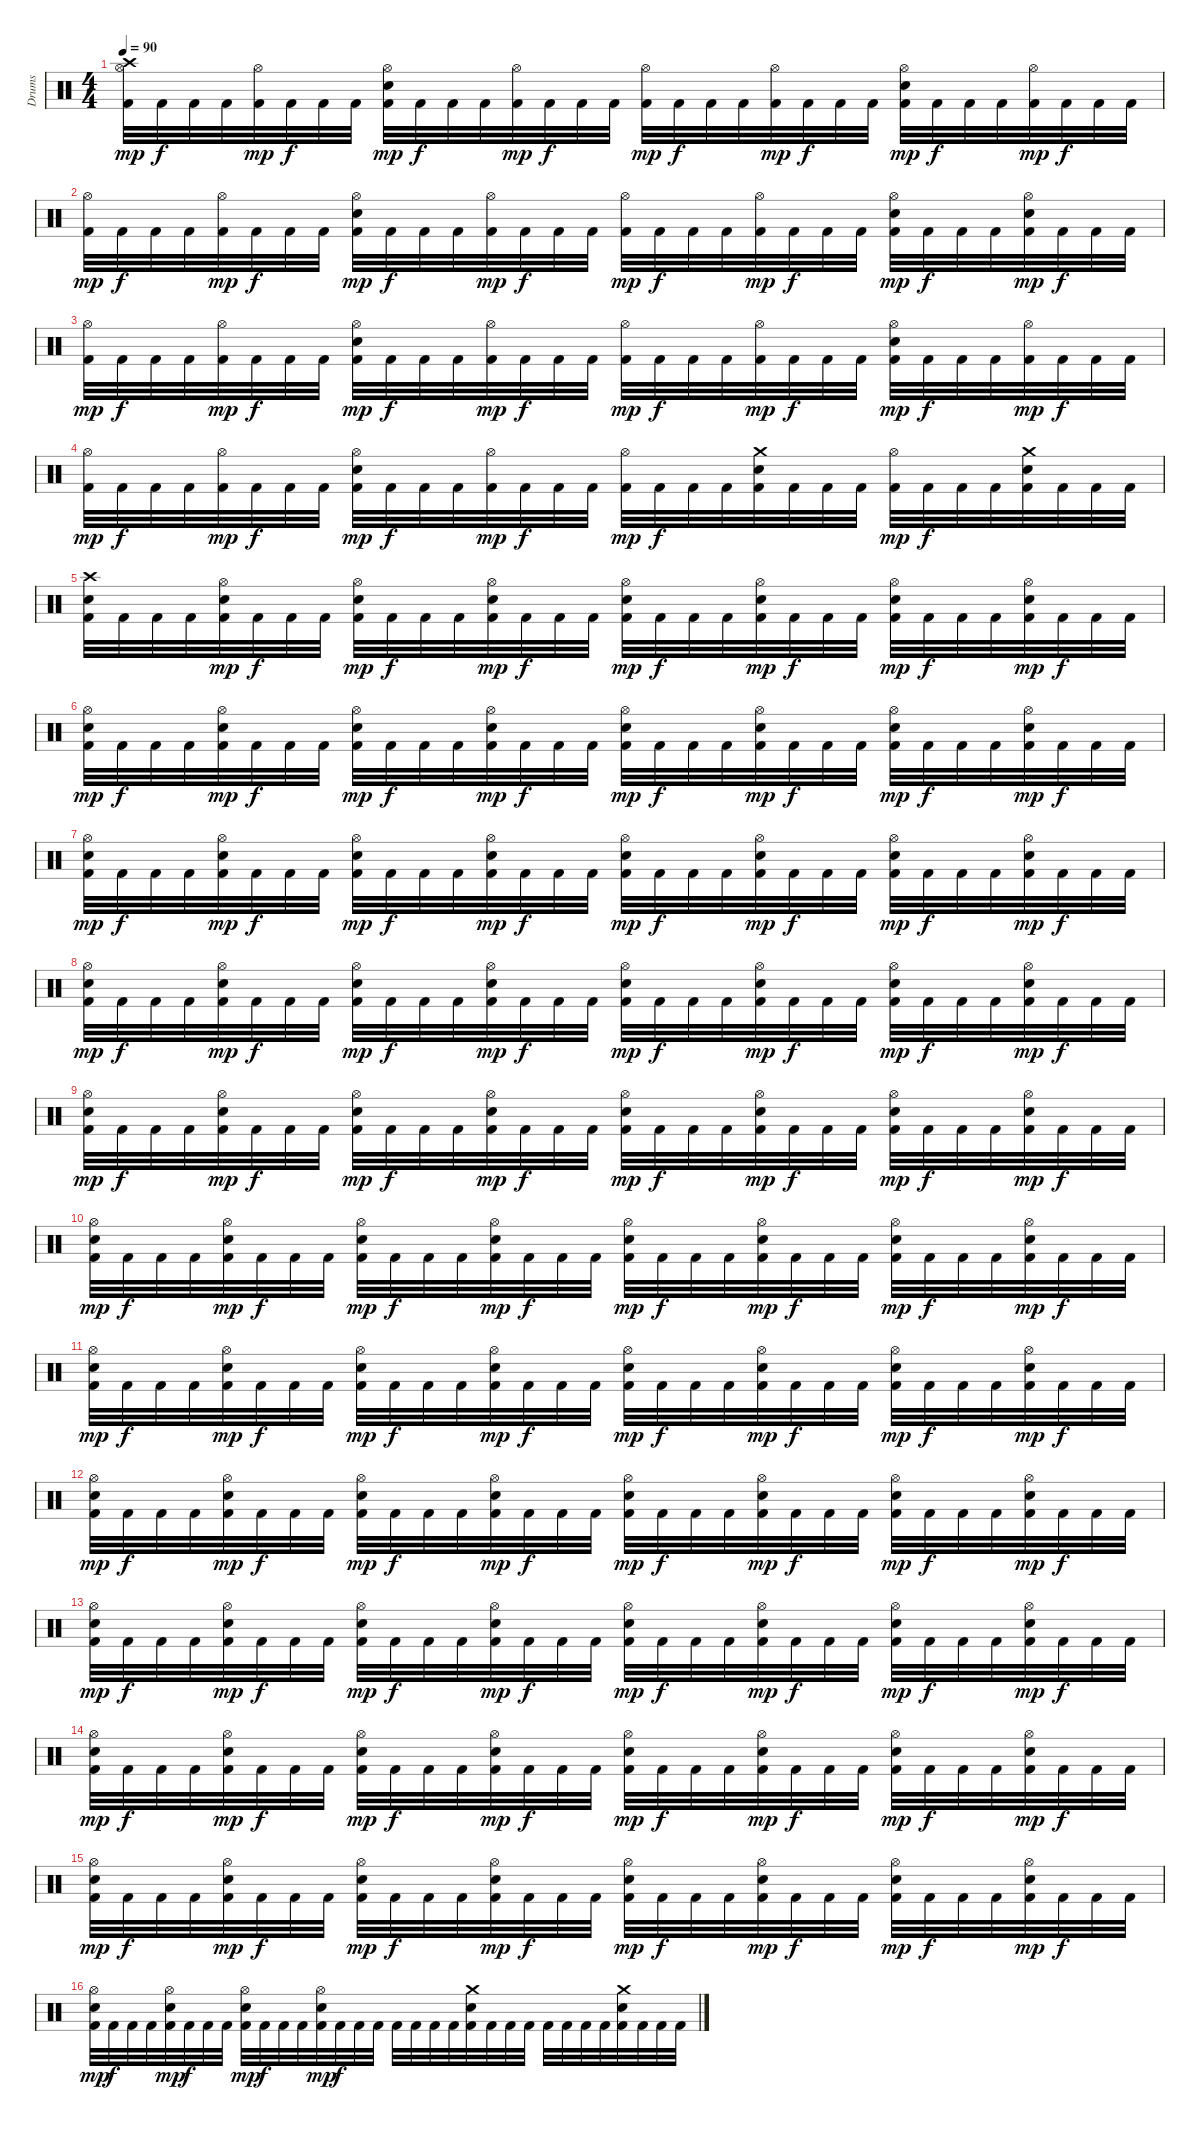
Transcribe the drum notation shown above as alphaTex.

\track ("Drums" "Drums") {instrument percussion}
\staff {score}
\articulation defaults
\ts (4 4)
\tempo 90
\clef neutral
\ks c
("Crash high (hit)" "Hi-Hat (open)" "Kick (hit) 2").32{dy mp} "Kick (hit) 2".32{dy f} "Kick (hit) 2".32 "Kick (hit) 2".32 ("Hi-Hat (open)" "Kick (hit) 2").32{dy mp} "Kick (hit) 2".32{dy f} "Kick (hit) 2".32 "Kick (hit) 2".32 ("Hi-Hat (open)" "Snare (hit) 2" "Kick (hit) 2").32{dy mp} "Kick (hit) 2".32{dy f} "Kick (hit) 2".32 "Kick (hit) 2".32 ("Hi-Hat (open)" "Kick (hit) 2").32{dy mp} "Kick (hit) 2".32{dy f} "Kick (hit) 2".32 "Kick (hit) 2".32 ("Hi-Hat (open)" "Kick (hit) 2").32{dy mp} "Kick (hit) 2".32{dy f} "Kick (hit) 2".32 "Kick (hit) 2".32 ("Hi-Hat (open)" "Kick (hit) 2").32{dy mp} "Kick (hit) 2".32{dy f} "Kick (hit) 2".32 "Kick (hit) 2".32 ("Hi-Hat (open)" "Snare (hit) 2" "Kick (hit) 2").32{dy mp} "Kick (hit) 2".32{dy f} "Kick (hit) 2".32 "Kick (hit) 2".32 ("Hi-Hat (open)" "Kick (hit) 2").32{dy mp} "Kick (hit) 2".32{dy f} "Kick (hit) 2".32 "Kick (hit) 2".32 |
("Hi-Hat (open)" "Kick (hit) 2").32{dy mp} "Kick (hit) 2".32{dy f} "Kick (hit) 2".32 "Kick (hit) 2".32 ("Hi-Hat (open)" "Kick (hit) 2").32{dy mp} "Kick (hit) 2".32{dy f} "Kick (hit) 2".32 "Kick (hit) 2".32 ("Hi-Hat (open)" "Snare (hit) 2" "Kick (hit) 2").32{dy mp} "Kick (hit) 2".32{dy f} "Kick (hit) 2".32 "Kick (hit) 2".32 ("Hi-Hat (open)" "Kick (hit) 2").32{dy mp} "Kick (hit) 2".32{dy f} "Kick (hit) 2".32 "Kick (hit) 2".32 ("Hi-Hat (open)" "Kick (hit) 2").32{dy mp} "Kick (hit) 2".32{dy f} "Kick (hit) 2".32 "Kick (hit) 2".32 ("Hi-Hat (open)" "Kick (hit) 2").32{dy mp} "Kick (hit) 2".32{dy f} "Kick (hit) 2".32 "Kick (hit) 2".32 ("Hi-Hat (open)" "Snare (hit) 2" "Kick (hit) 2").32{dy mp} "Kick (hit) 2".32{dy f} "Kick (hit) 2".32 "Kick (hit) 2".32 ("Hi-Hat (open)" "Snare (hit) 2" "Kick (hit) 2").32{dy mp} "Kick (hit) 2".32{dy f} "Kick (hit) 2".32 "Kick (hit) 2".32 |
("Hi-Hat (open)" "Kick (hit) 2").32{dy mp} "Kick (hit) 2".32{dy f} "Kick (hit) 2".32 "Kick (hit) 2".32 ("Hi-Hat (open)" "Kick (hit) 2").32{dy mp} "Kick (hit) 2".32{dy f} "Kick (hit) 2".32 "Kick (hit) 2".32 ("Hi-Hat (open)" "Snare (hit) 2" "Kick (hit) 2").32{dy mp} "Kick (hit) 2".32{dy f} "Kick (hit) 2".32 "Kick (hit) 2".32 ("Hi-Hat (open)" "Kick (hit) 2").32{dy mp} "Kick (hit) 2".32{dy f} "Kick (hit) 2".32 "Kick (hit) 2".32 ("Hi-Hat (open)" "Kick (hit) 2").32{dy mp} "Kick (hit) 2".32{dy f} "Kick (hit) 2".32 "Kick (hit) 2".32 ("Hi-Hat (open)" "Kick (hit) 2").32{dy mp} "Kick (hit) 2".32{dy f} "Kick (hit) 2".32 "Kick (hit) 2".32 ("Hi-Hat (open)" "Snare (hit) 2" "Kick (hit) 2").32{dy mp} "Kick (hit) 2".32{dy f} "Kick (hit) 2".32 "Kick (hit) 2".32 ("Hi-Hat (open)" "Kick (hit) 2").32{dy mp} "Kick (hit) 2".32{dy f} "Kick (hit) 2".32 "Kick (hit) 2".32 |
("Hi-Hat (open)" "Kick (hit) 2").32{dy mp} "Kick (hit) 2".32{dy f} "Kick (hit) 2".32 "Kick (hit) 2".32 ("Hi-Hat (open)" "Kick (hit) 2").32{dy mp} "Kick (hit) 2".32{dy f} "Kick (hit) 2".32 "Kick (hit) 2".32 ("Hi-Hat (open)" "Snare (hit) 2" "Kick (hit) 2").32{dy mp} "Kick (hit) 2".32{dy f} "Kick (hit) 2".32 "Kick (hit) 2".32 ("Hi-Hat (open)" "Kick (hit) 2").32{dy mp} "Kick (hit) 2".32{dy f} "Kick (hit) 2".32 "Kick (hit) 2".32 ("Hi-Hat (open)" "Kick (hit) 2").32{dy mp} "Kick (hit) 2".32{dy f} "Kick (hit) 2".32 "Kick (hit) 2".32 ("Crash medium (hit)" "Snare (hit) 2" "Kick (hit) 2").32 "Kick (hit) 2".32 "Kick (hit) 2".32 "Kick (hit) 2".32 ("Hi-Hat (open)" "Kick (hit) 2").32{dy mp} "Kick (hit) 2".32{dy f} "Kick (hit) 2".32 "Kick (hit) 2".32 ("Crash medium (hit)" "Snare (hit) 2" "Kick (hit) 2").32 "Kick (hit) 2".32 "Kick (hit) 2".32 "Kick (hit) 2".32 |
("Crash high (hit)" "Snare (hit) 2" "Kick (hit) 2").32 "Kick (hit) 2".32 "Kick (hit) 2".32 "Kick (hit) 2".32 ("Hi-Hat (open)" "Snare (hit) 2" "Kick (hit) 2").32{dy mp} "Kick (hit) 2".32{dy f} "Kick (hit) 2".32 "Kick (hit) 2".32 ("Hi-Hat (open)" "Snare (hit) 2" "Kick (hit) 2").32{dy mp} "Kick (hit) 2".32{dy f} "Kick (hit) 2".32 "Kick (hit) 2".32 ("Hi-Hat (open)" "Snare (hit) 2" "Kick (hit) 2").32{dy mp} "Kick (hit) 2".32{dy f} "Kick (hit) 2".32 "Kick (hit) 2".32 ("Hi-Hat (open)" "Snare (hit) 2" "Kick (hit) 2").32{dy mp} "Kick (hit) 2".32{dy f} "Kick (hit) 2".32 "Kick (hit) 2".32 ("Hi-Hat (open)" "Snare (hit) 2" "Kick (hit) 2").32{dy mp} "Kick (hit) 2".32{dy f} "Kick (hit) 2".32 "Kick (hit) 2".32 ("Hi-Hat (open)" "Snare (hit) 2" "Kick (hit) 2").32{dy mp} "Kick (hit) 2".32{dy f} "Kick (hit) 2".32 "Kick (hit) 2".32 ("Hi-Hat (open)" "Snare (hit) 2" "Kick (hit) 2").32{dy mp} "Kick (hit) 2".32{dy f} "Kick (hit) 2".32 "Kick (hit) 2".32 |
("Hi-Hat (open)" "Snare (hit) 2" "Kick (hit) 2").32{dy mp} "Kick (hit) 2".32{dy f} "Kick (hit) 2".32 "Kick (hit) 2".32 ("Hi-Hat (open)" "Snare (hit) 2" "Kick (hit) 2").32{dy mp} "Kick (hit) 2".32{dy f} "Kick (hit) 2".32 "Kick (hit) 2".32 ("Hi-Hat (open)" "Snare (hit) 2" "Kick (hit) 2").32{dy mp} "Kick (hit) 2".32{dy f} "Kick (hit) 2".32 "Kick (hit) 2".32 ("Hi-Hat (open)" "Snare (hit) 2" "Kick (hit) 2").32{dy mp} "Kick (hit) 2".32{dy f} "Kick (hit) 2".32 "Kick (hit) 2".32 ("Hi-Hat (open)" "Snare (hit) 2" "Kick (hit) 2").32{dy mp} "Kick (hit) 2".32{dy f} "Kick (hit) 2".32 "Kick (hit) 2".32 ("Hi-Hat (open)" "Snare (hit) 2" "Kick (hit) 2").32{dy mp} "Kick (hit) 2".32{dy f} "Kick (hit) 2".32 "Kick (hit) 2".32 ("Hi-Hat (open)" "Snare (hit) 2" "Kick (hit) 2").32{dy mp} "Kick (hit) 2".32{dy f} "Kick (hit) 2".32 "Kick (hit) 2".32 ("Hi-Hat (open)" "Snare (hit) 2" "Kick (hit) 2").32{dy mp} "Kick (hit) 2".32{dy f} "Kick (hit) 2".32 "Kick (hit) 2".32 |
("Hi-Hat (open)" "Snare (hit) 2" "Kick (hit) 2").32{dy mp} "Kick (hit) 2".32{dy f} "Kick (hit) 2".32 "Kick (hit) 2".32 ("Hi-Hat (open)" "Snare (hit) 2" "Kick (hit) 2").32{dy mp} "Kick (hit) 2".32{dy f} "Kick (hit) 2".32 "Kick (hit) 2".32 ("Hi-Hat (open)" "Snare (hit) 2" "Kick (hit) 2").32{dy mp} "Kick (hit) 2".32{dy f} "Kick (hit) 2".32 "Kick (hit) 2".32 ("Hi-Hat (open)" "Snare (hit) 2" "Kick (hit) 2").32{dy mp} "Kick (hit) 2".32{dy f} "Kick (hit) 2".32 "Kick (hit) 2".32 ("Hi-Hat (open)" "Snare (hit) 2" "Kick (hit) 2").32{dy mp} "Kick (hit) 2".32{dy f} "Kick (hit) 2".32 "Kick (hit) 2".32 ("Hi-Hat (open)" "Snare (hit) 2" "Kick (hit) 2").32{dy mp} "Kick (hit) 2".32{dy f} "Kick (hit) 2".32 "Kick (hit) 2".32 ("Hi-Hat (open)" "Snare (hit) 2" "Kick (hit) 2").32{dy mp} "Kick (hit) 2".32{dy f} "Kick (hit) 2".32 "Kick (hit) 2".32 ("Hi-Hat (open)" "Snare (hit) 2" "Kick (hit) 2").32{dy mp} "Kick (hit) 2".32{dy f} "Kick (hit) 2".32 "Kick (hit) 2".32 |
("Hi-Hat (open)" "Snare (hit) 2" "Kick (hit) 2").32{dy mp} "Kick (hit) 2".32{dy f} "Kick (hit) 2".32 "Kick (hit) 2".32 ("Hi-Hat (open)" "Snare (hit) 2" "Kick (hit) 2").32{dy mp} "Kick (hit) 2".32{dy f} "Kick (hit) 2".32 "Kick (hit) 2".32 ("Hi-Hat (open)" "Snare (hit) 2" "Kick (hit) 2").32{dy mp} "Kick (hit) 2".32{dy f} "Kick (hit) 2".32 "Kick (hit) 2".32 ("Hi-Hat (open)" "Snare (hit) 2" "Kick (hit) 2").32{dy mp} "Kick (hit) 2".32{dy f} "Kick (hit) 2".32 "Kick (hit) 2".32 ("Hi-Hat (open)" "Snare (hit) 2" "Kick (hit) 2").32{dy mp} "Kick (hit) 2".32{dy f} "Kick (hit) 2".32 "Kick (hit) 2".32 ("Hi-Hat (open)" "Snare (hit) 2" "Kick (hit) 2").32{dy mp} "Kick (hit) 2".32{dy f} "Kick (hit) 2".32 "Kick (hit) 2".32 ("Hi-Hat (open)" "Snare (hit) 2" "Kick (hit) 2").32{dy mp} "Kick (hit) 2".32{dy f} "Kick (hit) 2".32 "Kick (hit) 2".32 ("Hi-Hat (open)" "Snare (hit) 2" "Kick (hit) 2").32{dy mp} "Kick (hit) 2".32{dy f} "Kick (hit) 2".32 "Kick (hit) 2".32 |
("Hi-Hat (open)" "Snare (hit) 2" "Kick (hit) 2").32{dy mp} "Kick (hit) 2".32{dy f} "Kick (hit) 2".32 "Kick (hit) 2".32 ("Hi-Hat (open)" "Snare (hit) 2" "Kick (hit) 2").32{dy mp} "Kick (hit) 2".32{dy f} "Kick (hit) 2".32 "Kick (hit) 2".32 ("Hi-Hat (open)" "Snare (hit) 2" "Kick (hit) 2").32{dy mp} "Kick (hit) 2".32{dy f} "Kick (hit) 2".32 "Kick (hit) 2".32 ("Hi-Hat (open)" "Snare (hit) 2" "Kick (hit) 2").32{dy mp} "Kick (hit) 2".32{dy f} "Kick (hit) 2".32 "Kick (hit) 2".32 ("Hi-Hat (open)" "Snare (hit) 2" "Kick (hit) 2").32{dy mp} "Kick (hit) 2".32{dy f} "Kick (hit) 2".32 "Kick (hit) 2".32 ("Hi-Hat (open)" "Snare (hit) 2" "Kick (hit) 2").32{dy mp} "Kick (hit) 2".32{dy f} "Kick (hit) 2".32 "Kick (hit) 2".32 ("Hi-Hat (open)" "Snare (hit) 2" "Kick (hit) 2").32{dy mp} "Kick (hit) 2".32{dy f} "Kick (hit) 2".32 "Kick (hit) 2".32 ("Hi-Hat (open)" "Snare (hit) 2" "Kick (hit) 2").32{dy mp} "Kick (hit) 2".32{dy f} "Kick (hit) 2".32 "Kick (hit) 2".32 |
("Hi-Hat (open)" "Snare (hit) 2" "Kick (hit) 2").32{dy mp} "Kick (hit) 2".32{dy f} "Kick (hit) 2".32 "Kick (hit) 2".32 ("Hi-Hat (open)" "Snare (hit) 2" "Kick (hit) 2").32{dy mp} "Kick (hit) 2".32{dy f} "Kick (hit) 2".32 "Kick (hit) 2".32 ("Hi-Hat (open)" "Snare (hit) 2" "Kick (hit) 2").32{dy mp} "Kick (hit) 2".32{dy f} "Kick (hit) 2".32 "Kick (hit) 2".32 ("Hi-Hat (open)" "Snare (hit) 2" "Kick (hit) 2").32{dy mp} "Kick (hit) 2".32{dy f} "Kick (hit) 2".32 "Kick (hit) 2".32 ("Hi-Hat (open)" "Snare (hit) 2" "Kick (hit) 2").32{dy mp} "Kick (hit) 2".32{dy f} "Kick (hit) 2".32 "Kick (hit) 2".32 ("Hi-Hat (open)" "Snare (hit) 2" "Kick (hit) 2").32{dy mp} "Kick (hit) 2".32{dy f} "Kick (hit) 2".32 "Kick (hit) 2".32 ("Hi-Hat (open)" "Snare (hit) 2" "Kick (hit) 2").32{dy mp} "Kick (hit) 2".32{dy f} "Kick (hit) 2".32 "Kick (hit) 2".32 ("Hi-Hat (open)" "Snare (hit) 2" "Kick (hit) 2").32{dy mp} "Kick (hit) 2".32{dy f} "Kick (hit) 2".32 "Kick (hit) 2".32 |
("Hi-Hat (open)" "Snare (hit) 2" "Kick (hit) 2").32{dy mp} "Kick (hit) 2".32{dy f} "Kick (hit) 2".32 "Kick (hit) 2".32 ("Hi-Hat (open)" "Snare (hit) 2" "Kick (hit) 2").32{dy mp} "Kick (hit) 2".32{dy f} "Kick (hit) 2".32 "Kick (hit) 2".32 ("Hi-Hat (open)" "Snare (hit) 2" "Kick (hit) 2").32{dy mp} "Kick (hit) 2".32{dy f} "Kick (hit) 2".32 "Kick (hit) 2".32 ("Hi-Hat (open)" "Snare (hit) 2" "Kick (hit) 2").32{dy mp} "Kick (hit) 2".32{dy f} "Kick (hit) 2".32 "Kick (hit) 2".32 ("Hi-Hat (open)" "Snare (hit) 2" "Kick (hit) 2").32{dy mp} "Kick (hit) 2".32{dy f} "Kick (hit) 2".32 "Kick (hit) 2".32 ("Hi-Hat (open)" "Snare (hit) 2" "Kick (hit) 2").32{dy mp} "Kick (hit) 2".32{dy f} "Kick (hit) 2".32 "Kick (hit) 2".32 ("Hi-Hat (open)" "Snare (hit) 2" "Kick (hit) 2").32{dy mp} "Kick (hit) 2".32{dy f} "Kick (hit) 2".32 "Kick (hit) 2".32 ("Hi-Hat (open)" "Snare (hit) 2" "Kick (hit) 2").32{dy mp} "Kick (hit) 2".32{dy f} "Kick (hit) 2".32 "Kick (hit) 2".32 |
("Hi-Hat (open)" "Snare (hit) 2" "Kick (hit) 2").32{dy mp} "Kick (hit) 2".32{dy f} "Kick (hit) 2".32 "Kick (hit) 2".32 ("Hi-Hat (open)" "Snare (hit) 2" "Kick (hit) 2").32{dy mp} "Kick (hit) 2".32{dy f} "Kick (hit) 2".32 "Kick (hit) 2".32 ("Hi-Hat (open)" "Snare (hit) 2" "Kick (hit) 2").32{dy mp} "Kick (hit) 2".32{dy f} "Kick (hit) 2".32 "Kick (hit) 2".32 ("Hi-Hat (open)" "Snare (hit) 2" "Kick (hit) 2").32{dy mp} "Kick (hit) 2".32{dy f} "Kick (hit) 2".32 "Kick (hit) 2".32 ("Hi-Hat (open)" "Snare (hit) 2" "Kick (hit) 2").32{dy mp} "Kick (hit) 2".32{dy f} "Kick (hit) 2".32 "Kick (hit) 2".32 ("Hi-Hat (open)" "Snare (hit) 2" "Kick (hit) 2").32{dy mp} "Kick (hit) 2".32{dy f} "Kick (hit) 2".32 "Kick (hit) 2".32 ("Hi-Hat (open)" "Snare (hit) 2" "Kick (hit) 2").32{dy mp} "Kick (hit) 2".32{dy f} "Kick (hit) 2".32 "Kick (hit) 2".32 ("Hi-Hat (open)" "Snare (hit) 2" "Kick (hit) 2").32{dy mp} "Kick (hit) 2".32{dy f} "Kick (hit) 2".32 "Kick (hit) 2".32 |
("Hi-Hat (open)" "Snare (hit) 2" "Kick (hit) 2").32{dy mp} "Kick (hit) 2".32{dy f} "Kick (hit) 2".32 "Kick (hit) 2".32 ("Hi-Hat (open)" "Snare (hit) 2" "Kick (hit) 2").32{dy mp} "Kick (hit) 2".32{dy f} "Kick (hit) 2".32 "Kick (hit) 2".32 ("Hi-Hat (open)" "Snare (hit) 2" "Kick (hit) 2").32{dy mp} "Kick (hit) 2".32{dy f} "Kick (hit) 2".32 "Kick (hit) 2".32 ("Hi-Hat (open)" "Snare (hit) 2" "Kick (hit) 2").32{dy mp} "Kick (hit) 2".32{dy f} "Kick (hit) 2".32 "Kick (hit) 2".32 ("Hi-Hat (open)" "Snare (hit) 2" "Kick (hit) 2").32{dy mp} "Kick (hit) 2".32{dy f} "Kick (hit) 2".32 "Kick (hit) 2".32 ("Hi-Hat (open)" "Snare (hit) 2" "Kick (hit) 2").32{dy mp} "Kick (hit) 2".32{dy f} "Kick (hit) 2".32 "Kick (hit) 2".32 ("Hi-Hat (open)" "Snare (hit) 2" "Kick (hit) 2").32{dy mp} "Kick (hit) 2".32{dy f} "Kick (hit) 2".32 "Kick (hit) 2".32 ("Hi-Hat (open)" "Snare (hit) 2" "Kick (hit) 2").32{dy mp} "Kick (hit) 2".32{dy f} "Kick (hit) 2".32 "Kick (hit) 2".32 |
("Hi-Hat (open)" "Snare (hit) 2" "Kick (hit) 2").32{dy mp} "Kick (hit) 2".32{dy f} "Kick (hit) 2".32 "Kick (hit) 2".32 ("Hi-Hat (open)" "Snare (hit) 2" "Kick (hit) 2").32{dy mp} "Kick (hit) 2".32{dy f} "Kick (hit) 2".32 "Kick (hit) 2".32 ("Hi-Hat (open)" "Snare (hit) 2" "Kick (hit) 2").32{dy mp} "Kick (hit) 2".32{dy f} "Kick (hit) 2".32 "Kick (hit) 2".32 ("Hi-Hat (open)" "Snare (hit) 2" "Kick (hit) 2").32{dy mp} "Kick (hit) 2".32{dy f} "Kick (hit) 2".32 "Kick (hit) 2".32 ("Hi-Hat (open)" "Snare (hit) 2" "Kick (hit) 2").32{dy mp} "Kick (hit) 2".32{dy f} "Kick (hit) 2".32 "Kick (hit) 2".32 ("Hi-Hat (open)" "Snare (hit) 2" "Kick (hit) 2").32{dy mp} "Kick (hit) 2".32{dy f} "Kick (hit) 2".32 "Kick (hit) 2".32 ("Hi-Hat (open)" "Snare (hit) 2" "Kick (hit) 2").32{dy mp} "Kick (hit) 2".32{dy f} "Kick (hit) 2".32 "Kick (hit) 2".32 ("Hi-Hat (open)" "Snare (hit) 2" "Kick (hit) 2").32{dy mp} "Kick (hit) 2".32{dy f} "Kick (hit) 2".32 "Kick (hit) 2".32 |
("Hi-Hat (open)" "Snare (hit) 2" "Kick (hit) 2").32{dy mp} "Kick (hit) 2".32{dy f} "Kick (hit) 2".32 "Kick (hit) 2".32 ("Hi-Hat (open)" "Snare (hit) 2" "Kick (hit) 2").32{dy mp} "Kick (hit) 2".32{dy f} "Kick (hit) 2".32 "Kick (hit) 2".32 ("Hi-Hat (open)" "Snare (hit) 2" "Kick (hit) 2").32{dy mp} "Kick (hit) 2".32{dy f} "Kick (hit) 2".32 "Kick (hit) 2".32 ("Hi-Hat (open)" "Snare (hit) 2" "Kick (hit) 2").32{dy mp} "Kick (hit) 2".32{dy f} "Kick (hit) 2".32 "Kick (hit) 2".32 ("Hi-Hat (open)" "Snare (hit) 2" "Kick (hit) 2").32{dy mp} "Kick (hit) 2".32{dy f} "Kick (hit) 2".32 "Kick (hit) 2".32 ("Hi-Hat (open)" "Snare (hit) 2" "Kick (hit) 2").32{dy mp} "Kick (hit) 2".32{dy f} "Kick (hit) 2".32 "Kick (hit) 2".32 ("Hi-Hat (open)" "Snare (hit) 2" "Kick (hit) 2").32{dy mp} "Kick (hit) 2".32{dy f} "Kick (hit) 2".32 "Kick (hit) 2".32 ("Hi-Hat (open)" "Snare (hit) 2" "Kick (hit) 2").32{dy mp} "Kick (hit) 2".32{dy f} "Kick (hit) 2".32 "Kick (hit) 2".32 |
("Hi-Hat (open)" "Snare (hit) 2" "Kick (hit) 2").32{dy mp} "Kick (hit) 2".32{dy f} "Kick (hit) 2".32 "Kick (hit) 2".32 ("Hi-Hat (open)" "Snare (hit) 2" "Kick (hit) 2").32{dy mp} "Kick (hit) 2".32{dy f} "Kick (hit) 2".32 "Kick (hit) 2".32 ("Hi-Hat (open)" "Snare (hit) 2" "Kick (hit) 2").32{dy mp} "Kick (hit) 2".32{dy f} "Kick (hit) 2".32 "Kick (hit) 2".32 ("Hi-Hat (open)" "Snare (hit) 2" "Kick (hit) 2").32{dy mp} "Kick (hit) 2".32{dy f} "Kick (hit) 2".32 "Kick (hit) 2".32 "Kick (hit) 2".32 "Kick (hit) 2".32 "Kick (hit) 2".32 "Kick (hit) 2".32 ("Crash medium (hit)" "Snare (hit) 2" "Kick (hit) 2").32 "Kick (hit) 2".32 "Kick (hit) 2".32 "Kick (hit) 2".32 "Kick (hit) 2".32 "Kick (hit) 2".32 "Kick (hit) 2".32 "Kick (hit) 2".32 ("Crash medium (hit)" "Snare (hit) 2" "Kick (hit) 2").32 "Kick (hit) 2".32 "Kick (hit) 2".32 "Kick (hit) 2".32
